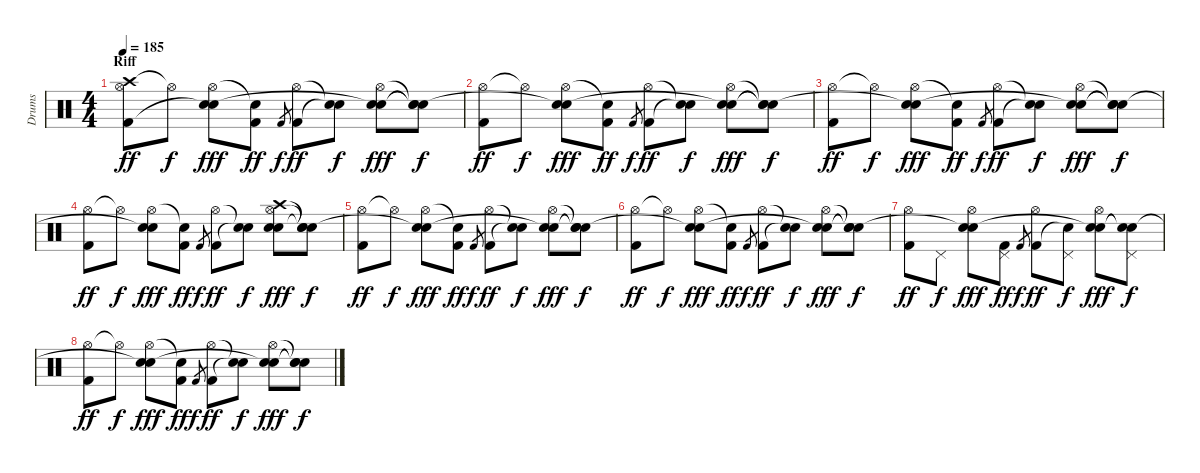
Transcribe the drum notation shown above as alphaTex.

\track ("Drums" "Drums") {instrument percussion}
\staff {score}
\articulation defaults
\ts (4 4)
\section ("" "Riff")
\tempo 185
\clef neutral
\ks c
("Crash high (hit)" "Hi-Hat (open)" "Kick (hit) 2").8{dy ff} "Hi-Hat (open)"{t}.8{dy f} ("Hi-Hat (open)" "Electric Snare (hit)" "Snare (hit)"{t}).8{dy fff} ("Snare (hit)"{t} "Kick (hit) 2").8{dy ff} "Kick (hit) 2".8{gr dy f} ("Hi-Hat (open)" "Kick (hit) 2").8{dy ff} ("Snare (hit)"{t} "Snare (hit)"{t}).8{dy f} ("Hi-Hat (open)" "Electric Snare (hit)" "Snare (hit)"{t}).8{dy fff} ("Snare (hit)"{t} "Snare (hit)"{t} "Snare (hit)"{t}).8{dy f} |
("Hi-Hat (open)" "Kick (hit) 2").8{dy ff} "Hi-Hat (open)"{t}.8{dy f} ("Hi-Hat (open)" "Electric Snare (hit)" "Snare (hit)"{t}).8{dy fff} ("Snare (hit)"{t} "Kick (hit) 2").8{dy ff} "Kick (hit) 2".8{gr dy f} ("Hi-Hat (open)" "Kick (hit) 2").8{dy ff} ("Snare (hit)"{t} "Snare (hit)"{t}).8{dy f} ("Hi-Hat (open)" "Electric Snare (hit)" "Snare (hit)"{t}).8{dy fff} ("Snare (hit)"{t} "Snare (hit)"{t} "Snare (hit)"{t}).8{dy f} |
("Hi-Hat (open)" "Kick (hit) 2").8{dy ff} "Hi-Hat (open)"{t}.8{dy f} ("Hi-Hat (open)" "Electric Snare (hit)" "Snare (hit)"{t}).8{dy fff} ("Snare (hit)"{t} "Kick (hit) 2").8{dy ff} "Kick (hit) 2".8{gr dy f} ("Hi-Hat (open)" "Kick (hit) 2").8{dy ff} ("Snare (hit)"{t} "Snare (hit)"{t}).8{dy f} ("Hi-Hat (open)" "Electric Snare (hit)" "Snare (hit)"{t}).8{dy fff} ("Snare (hit)"{t} "Snare (hit)"{t} "Snare (hit)"{t}).8{dy f} |
("Hi-Hat (open)" "Kick (hit) 2").8{dy ff} "Hi-Hat (open)"{t}.8{dy f} ("Hi-Hat (open)" "Electric Snare (hit)" "Snare (hit)"{t}).8{dy fff} ("Snare (hit)"{t} "Kick (hit) 2").8{dy ff} "Kick (hit) 2".8{gr dy f} ("Hi-Hat (open)" "Kick (hit) 2").8{dy ff} ("Snare (hit)"{t} "Snare (hit)"{t}).8{dy f} ("Crash high (hit)" "Hi-Hat (open)" "Electric Snare (hit)" "Snare (hit)").8{dy fff} ("Snare (hit)"{t} "Snare (hit)"{t} "Snare (hit)"{t}).8{dy f} |
("Hi-Hat (open)" "Kick (hit) 2").8{dy ff} "Hi-Hat (open)"{t}.8{dy f} ("Hi-Hat (open)" "Electric Snare (hit)" "Snare (hit)"{t}).8{dy fff} ("Snare (hit)"{t} "Kick (hit) 2").8{dy ff} "Kick (hit) 2".8{gr dy f} ("Hi-Hat (open)" "Kick (hit) 2").8{dy ff} ("Snare (hit)"{t} "Snare (hit)"{t}).8{dy f} ("Hi-Hat (open)" "Electric Snare (hit)" "Snare (hit)"{t}).8{dy fff} ("Snare (hit)"{t} "Snare (hit)"{t} "Snare (hit)"{t}).8{dy f} |
("Hi-Hat (open)" "Kick (hit) 2").8{dy ff} "Hi-Hat (open)"{t}.8{dy f} ("Hi-Hat (open)" "Electric Snare (hit)" "Snare (hit)"{t}).8{dy fff} ("Snare (hit)"{t} "Kick (hit) 2").8{dy ff} "Kick (hit) 2".8{gr dy f} ("Hi-Hat (open)" "Kick (hit) 2").8{dy ff} ("Snare (hit)"{t} "Snare (hit)"{t}).8{dy f} ("Hi-Hat (open)" "Electric Snare (hit)" "Snare (hit)"{t}).8{dy fff} ("Snare (hit)"{t} "Snare (hit)"{t} "Snare (hit)"{t}).8{dy f} |
("Hi-Hat (open)" "Kick (hit) 2").8{dy ff} "Pedal Hi-Hat (hit)".8{dy f} ("Hi-Hat (open)" "Electric Snare (hit)" "Snare (hit)"{t}).8{dy fff} ("Pedal Hi-Hat (hit)" "Kick (hit) 2").8{dy ff} "Kick (hit) 2".8{gr dy f} ("Hi-Hat (open)" "Kick (hit) 2").8{dy ff} ("Pedal Hi-Hat (hit)" "Snare (hit)"{t}).8{dy f} ("Hi-Hat (open)" "Electric Snare (hit)" "Snare (hit)"{t}).8{dy fff} ("Pedal Hi-Hat (hit)" "Snare (hit)"{t} "Snare (hit)"{t}).8{dy f} |
("Hi-Hat (open)" "Kick (hit) 2").8{dy ff} "Hi-Hat (open)"{t}.8{dy f} ("Hi-Hat (open)" "Electric Snare (hit)" "Snare (hit)"{t}).8{dy fff} ("Snare (hit)"{t} "Kick (hit) 2").8{dy ff} "Kick (hit) 2".8{gr dy f} ("Hi-Hat (open)" "Kick (hit) 2").8{dy ff} ("Snare (hit)"{t} "Snare (hit)"{t}).8{dy f} ("Hi-Hat (open)" "Electric Snare (hit)" "Snare (hit)"{t}).8{dy fff} ("Snare (hit)"{t} "Snare (hit)"{t} "Snare (hit)"{t}).8{dy f}
